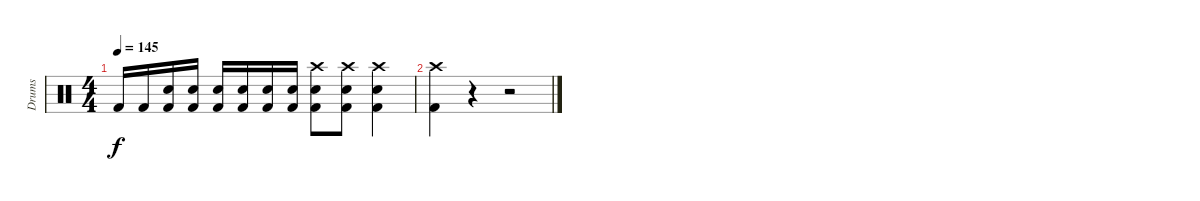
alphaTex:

\track ("Drums" "Drums") {instrument percussion}
\staff {score}
\articulation defaults
\ts (4 4)
\tempo 145
\clef neutral
\ks c "Kick (hit) 2".16{dy f} "Kick (hit) 2".16
("Snare (hit) 2" "Kick (hit) 2").16 ("Snare (hit) 2" "Kick (hit) 2").16 ("Snare (hit) 2" "Kick (hit) 2").16 ("Snare (hit) 2" "Kick (hit) 2").16 ("Snare (hit) 2" "Kick (hit) 2").16 ("Snare (hit) 2" "Kick (hit) 2").16 ("Crash high (hit)" "Snare (hit) 2" "Kick (hit) 2").8 ("Crash high (hit)" "Snare (hit) 2" "Kick (hit) 2").8 ("Crash high (hit)" "Snare (hit) 2" "Kick (hit) 2").4 |
("Crash high (hit)" "Kick (hit) 2").4 r.4 r.2
